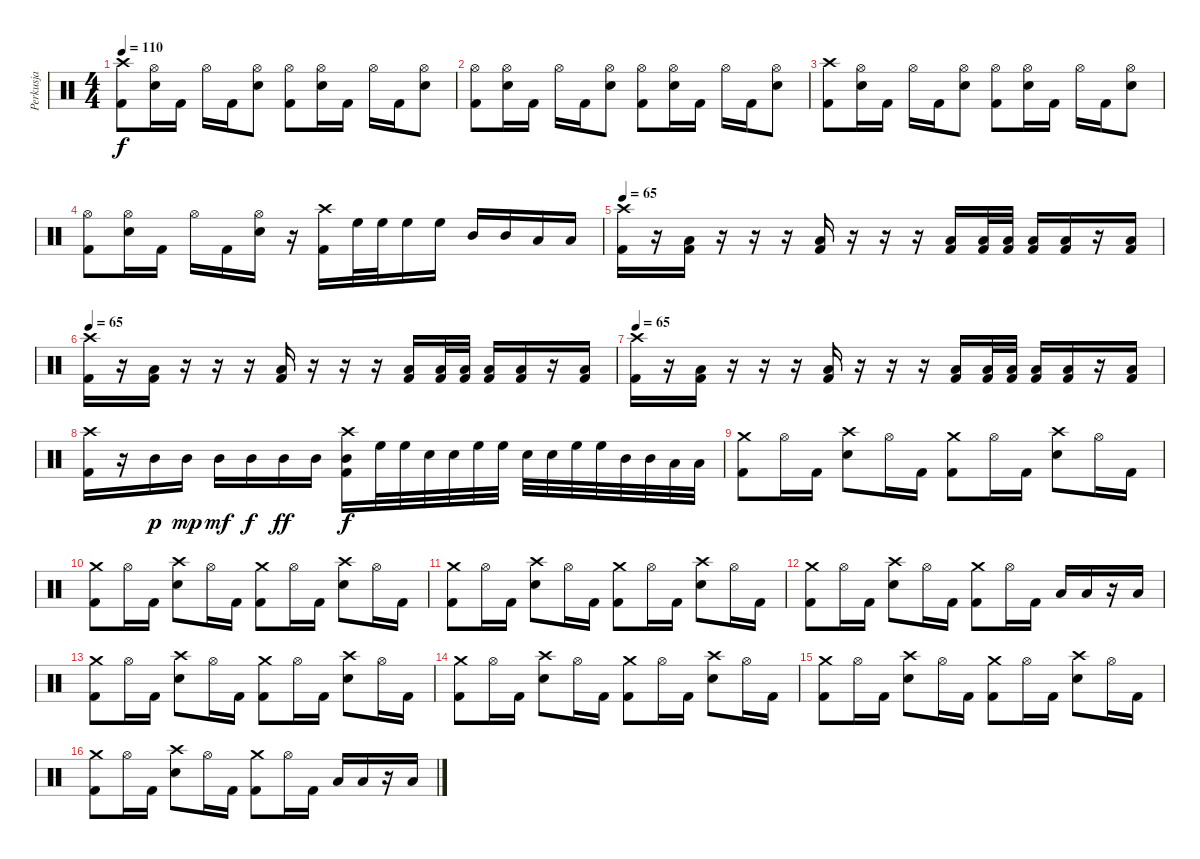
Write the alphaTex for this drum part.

\track ("Perkusja" "Perkusja") {instrument percussion}
\staff {score}
\articulation defaults
\ts (4 4)
\tempo 110
\clef neutral
\ks c
("Crash high (hit)" "Kick (hit) 2").8{dy f} ("Hi-Hat (open)" "Snare (hit) 2").16 "Kick (hit) 2".16 "Hi-Hat (open)".16 "Kick (hit) 2".16 ("Hi-Hat (open)" "Snare (hit) 2").8 ("Hi-Hat (open)" "Kick (hit) 2").8 ("Hi-Hat (open)" "Snare (hit) 2").16 "Kick (hit) 2".16 "Hi-Hat (open)".16 "Kick (hit) 2".16 ("Hi-Hat (open)" "Snare (hit) 2").8 |
("Hi-Hat (open)" "Kick (hit) 2").8 ("Hi-Hat (open)" "Snare (hit) 2").16 "Kick (hit) 2".16 "Hi-Hat (open)".16 "Kick (hit) 2".16 ("Hi-Hat (open)" "Snare (hit) 2").8 ("Hi-Hat (open)" "Kick (hit) 2").8 ("Hi-Hat (open)" "Snare (hit) 2").16 "Kick (hit) 2".16 "Hi-Hat (open)".16 "Kick (hit) 2".16 ("Hi-Hat (open)" "Snare (hit) 2").8 |
("Crash high (hit)" "Kick (hit) 2").8 ("Hi-Hat (open)" "Snare (hit) 2").16 "Kick (hit) 2".16 "Hi-Hat (open)".16 "Kick (hit) 2".16 ("Hi-Hat (open)" "Snare (hit) 2").8 ("Hi-Hat (open)" "Kick (hit) 2").8 ("Hi-Hat (open)" "Snare (hit) 2").16 "Kick (hit) 2".16 "Hi-Hat (open)".16 "Kick (hit) 2".16 ("Hi-Hat (open)" "Snare (hit) 2").8 |
("Hi-Hat (open)" "Kick (hit) 2").8 ("Hi-Hat (open)" "Snare (hit) 2").16 "Kick (hit) 2".16 "Hi-Hat (open)".16 "Kick (hit) 2".16 ("Hi-Hat (open)" "Snare (hit) 2").16 r.16 ("Crash high (hit)" "Kick (hit) 2").16 "High Floor Tom (hit)".32 "High Floor Tom (hit)".32 "High Floor Tom (hit)".16 "High Floor Tom (hit)".16 "Mid Tom (hit)".16 "Mid Tom (hit)".16 "Low Floor Tom (hit)".16 "Low Floor Tom (hit)".16 |
\tempo 100
\tempo 65
("Crash high (hit)" "Kick (hit) 2").16 r.16 ("Low Floor Tom (hit)" "Kick (hit) 2").16 r.16 r.16 r.16 ("Low Floor Tom (hit)" "Kick (hit) 2").16 r.16 r.16 r.16 ("Low Floor Tom (hit)" "Kick (hit) 2").16 ("Low Floor Tom (hit)" "Kick (hit) 2").32 ("Low Floor Tom (hit)" "Kick (hit) 2").32 ("Low Floor Tom (hit)" "Kick (hit) 2").16 ("Low Floor Tom (hit)" "Kick (hit) 2").16 r.16 ("Low Floor Tom (hit)" "Kick (hit) 2").16 |
\tempo 100
\tempo 65
("Crash high (hit)" "Kick (hit) 2").16 r.16 ("Low Floor Tom (hit)" "Kick (hit) 2").16 r.16 r.16 r.16 ("Low Floor Tom (hit)" "Kick (hit) 2").16 r.16 r.16 r.16 ("Low Floor Tom (hit)" "Kick (hit) 2").16 ("Low Floor Tom (hit)" "Kick (hit) 2").32 ("Low Floor Tom (hit)" "Kick (hit) 2").32 ("Low Floor Tom (hit)" "Kick (hit) 2").16 ("Low Floor Tom (hit)" "Kick (hit) 2").16 r.16 ("Low Floor Tom (hit)" "Kick (hit) 2").16 |
\tempo 65
("Crash high (hit)" "Kick (hit) 2").16 r.16 ("Low Floor Tom (hit)" "Kick (hit) 2").16 r.16 r.16 r.16 ("Low Floor Tom (hit)" "Kick (hit) 2").16 r.16 r.16 r.16 ("Low Floor Tom (hit)" "Kick (hit) 2").16 ("Low Floor Tom (hit)" "Kick (hit) 2").32 ("Low Floor Tom (hit)" "Kick (hit) 2").32 ("Low Floor Tom (hit)" "Kick (hit) 2").16 ("Low Floor Tom (hit)" "Kick (hit) 2").16 r.16 ("Low Floor Tom (hit)" "Kick (hit) 2").16 |
("Crash high (hit)" "Kick (hit) 2").16 r.16 "Mid Tom (hit)".16{dy p} "Mid Tom (hit)".16{dy mp} "Mid Tom (hit)".16{dy mf} "Mid Tom (hit)".16{dy f} "Mid Tom (hit)".16{dy ff} "Mid Tom (hit)".16 ("Crash high (hit)" "Mid Tom (hit)" "Kick (hit) 2").16{dy f} "High Floor Tom (hit)".32 "High Floor Tom (hit)".32 "Snare (hit) 2".32 "Snare (hit) 2".32 "High Floor Tom (hit)".32 "High Floor Tom (hit)".32 "Snare (hit) 2".32 "Snare (hit) 2".32 "High Floor Tom (hit)".32 "High Floor Tom (hit)".32 "Mid Tom (hit)".32 "Mid Tom (hit)".32 "Low Floor Tom (hit)".32 "Low Floor Tom (hit)".32 |
("Crash medium (hit)" "Kick (hit) 2").8 "Hi-Hat (open)".16 "Kick (hit) 2".16 ("Crash high (hit)" "Snare (hit) 2").8 "Hi-Hat (open)".16 "Kick (hit) 2".16 ("Crash medium (hit)" "Kick (hit) 2").8 "Hi-Hat (open)".16 "Kick (hit) 2".16 ("Crash high (hit)" "Snare (hit) 2").8 "Hi-Hat (open)".16 "Kick (hit) 2".16 |
("Crash medium (hit)" "Kick (hit) 2").8 "Hi-Hat (open)".16 "Kick (hit) 2".16 ("Crash high (hit)" "Snare (hit) 2").8 "Hi-Hat (open)".16 "Kick (hit) 2".16 ("Crash medium (hit)" "Kick (hit) 2").8 "Hi-Hat (open)".16 "Kick (hit) 2".16 ("Crash high (hit)" "Snare (hit) 2").8 "Hi-Hat (open)".16 "Kick (hit) 2".16 |
("Crash medium (hit)" "Kick (hit) 2").8 "Hi-Hat (open)".16 "Kick (hit) 2".16 ("Crash high (hit)" "Snare (hit) 2").8 "Hi-Hat (open)".16 "Kick (hit) 2".16 ("Crash medium (hit)" "Kick (hit) 2").8 "Hi-Hat (open)".16 "Kick (hit) 2".16 ("Crash high (hit)" "Snare (hit) 2").8 "Hi-Hat (open)".16 "Kick (hit) 2".16 |
("Crash medium (hit)" "Kick (hit) 2").8 "Hi-Hat (open)".16 "Kick (hit) 2".16 ("Crash high (hit)" "Snare (hit) 2").8 "Hi-Hat (open)".16 "Kick (hit) 2".16 ("Crash medium (hit)" "Kick (hit) 2").8 "Hi-Hat (open)".16 "Kick (hit) 2".16 "Low Floor Tom (hit)".16 "Low Floor Tom (hit)".16 r.16 "Low Floor Tom (hit)".16 |
("Crash medium (hit)" "Kick (hit) 2").8 "Hi-Hat (open)".16 "Kick (hit) 2".16 ("Crash high (hit)" "Snare (hit) 2").8 "Hi-Hat (open)".16 "Kick (hit) 2".16 ("Crash medium (hit)" "Kick (hit) 2").8 "Hi-Hat (open)".16 "Kick (hit) 2".16 ("Crash high (hit)" "Snare (hit) 2").8 "Hi-Hat (open)".16 "Kick (hit) 2".16 |
("Crash medium (hit)" "Kick (hit) 2").8 "Hi-Hat (open)".16 "Kick (hit) 2".16 ("Crash high (hit)" "Snare (hit) 2").8 "Hi-Hat (open)".16 "Kick (hit) 2".16 ("Crash medium (hit)" "Kick (hit) 2").8 "Hi-Hat (open)".16 "Kick (hit) 2".16 ("Crash high (hit)" "Snare (hit) 2").8 "Hi-Hat (open)".16 "Kick (hit) 2".16 |
("Crash medium (hit)" "Kick (hit) 2").8 "Hi-Hat (open)".16 "Kick (hit) 2".16 ("Crash high (hit)" "Snare (hit) 2").8 "Hi-Hat (open)".16 "Kick (hit) 2".16 ("Crash medium (hit)" "Kick (hit) 2").8 "Hi-Hat (open)".16 "Kick (hit) 2".16 ("Crash high (hit)" "Snare (hit) 2").8 "Hi-Hat (open)".16 "Kick (hit) 2".16 |
("Crash medium (hit)" "Kick (hit) 2").8 "Hi-Hat (open)".16 "Kick (hit) 2".16 ("Crash high (hit)" "Snare (hit) 2").8 "Hi-Hat (open)".16 "Kick (hit) 2".16 ("Crash medium (hit)" "Kick (hit) 2").8 "Hi-Hat (open)".16 "Kick (hit) 2".16 "Low Floor Tom (hit)".16 "Low Floor Tom (hit)".16 r.16 "Low Floor Tom (hit)".16
